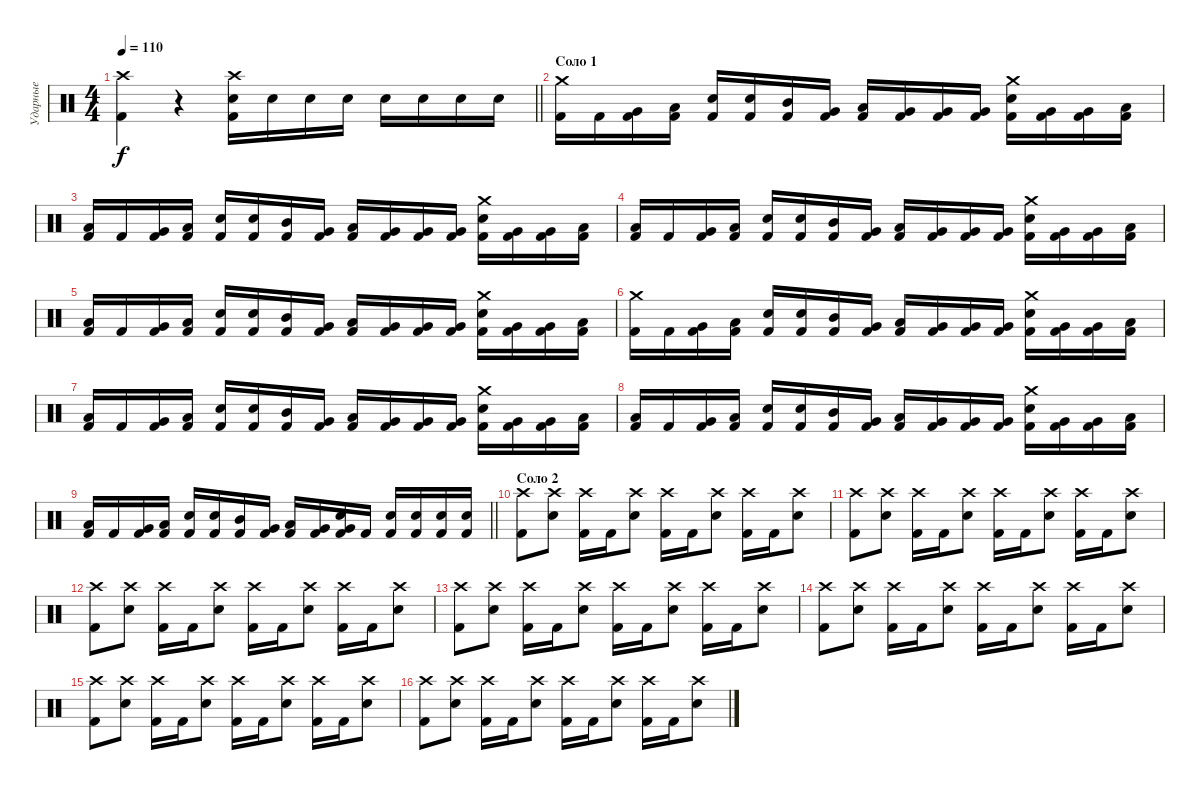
\track ("Ударные" "Ударные") {instrument percussion}
\staff {score}
\articulation defaults
\ts (4 4)
\tempo 110
\clef neutral
\barLineRight lightlight
\ks c
("Crash high (hit)" "Kick (hit) 2").4{dy f} r.4 ("Crash high (hit)" "Snare (hit) 2" "Kick (hit) 2").16 "Snare (hit) 2".16 "Snare (hit) 2".16 "Snare (hit) 2".16 "Snare (hit) 2".16 "Snare (hit) 2".16 "Snare (hit) 2".16 "Snare (hit) 2".16 |
\section ("" "Соло 1")
("Crash medium (hit)" "Kick (hit) 2").16 "Kick (hit) 2".16 ("Very Low Tom (hit)" "Kick (hit) 2").16 ("Low Floor Tom (hit)" "Kick (hit) 2").16 ("Snare (hit) 2" "Kick (hit) 2").16 ("Snare (hit) 2" "Kick (hit) 2").16 ("Mid Tom (hit)" "Kick (hit) 2").16 ("Very Low Tom (hit)" "Kick (hit) 2").16 ("Low Tom (hit)" "Kick (hit) 2").16 ("Very Low Tom (hit)" "Kick (hit) 2").16 ("Very Low Tom (hit)" "Kick (hit) 2").16 ("Very Low Tom (hit)" "Kick (hit) 2").16 ("Crash medium (hit)" "Snare (hit) 2" "Kick (hit) 2").16 ("Very Low Tom (hit)" "Kick (hit) 2").16 ("Very Low Tom (hit)" "Kick (hit) 2").16 ("Low Floor Tom (hit)" "Kick (hit) 2").16 |
("Low Tom (hit)" "Kick (hit) 2").16 "Kick (hit) 2".16 ("Very Low Tom (hit)" "Kick (hit) 2").16 ("Low Floor Tom (hit)" "Kick (hit) 2").16 ("Snare (hit) 2" "Kick (hit) 2").16 ("Snare (hit) 2" "Kick (hit) 2").16 ("Mid Tom (hit)" "Kick (hit) 2").16 ("Very Low Tom (hit)" "Kick (hit) 2").16 ("Low Tom (hit)" "Kick (hit) 2").16 ("Very Low Tom (hit)" "Kick (hit) 2").16 ("Very Low Tom (hit)" "Kick (hit) 2").16 ("Very Low Tom (hit)" "Kick (hit) 2").16 ("Crash medium (hit)" "Snare (hit) 2" "Kick (hit) 2").16 ("Very Low Tom (hit)" "Kick (hit) 2").16 ("Very Low Tom (hit)" "Kick (hit) 2").16 ("Low Floor Tom (hit)" "Kick (hit) 2").16 |
("Low Tom (hit)" "Kick (hit) 2").16 "Kick (hit) 2".16 ("Very Low Tom (hit)" "Kick (hit) 2").16 ("Low Floor Tom (hit)" "Kick (hit) 2").16 ("Snare (hit) 2" "Kick (hit) 2").16 ("Snare (hit) 2" "Kick (hit) 2").16 ("Mid Tom (hit)" "Kick (hit) 2").16 ("Very Low Tom (hit)" "Kick (hit) 2").16 ("Low Tom (hit)" "Kick (hit) 2").16 ("Very Low Tom (hit)" "Kick (hit) 2").16 ("Very Low Tom (hit)" "Kick (hit) 2").16 ("Very Low Tom (hit)" "Kick (hit) 2").16 ("Crash medium (hit)" "Snare (hit) 2" "Kick (hit) 2").16 ("Very Low Tom (hit)" "Kick (hit) 2").16 ("Very Low Tom (hit)" "Kick (hit) 2").16 ("Low Floor Tom (hit)" "Kick (hit) 2").16 |
("Low Tom (hit)" "Kick (hit) 2").16 "Kick (hit) 2".16 ("Very Low Tom (hit)" "Kick (hit) 2").16 ("Low Floor Tom (hit)" "Kick (hit) 2").16 ("Snare (hit) 2" "Kick (hit) 2").16 ("Snare (hit) 2" "Kick (hit) 2").16 ("Mid Tom (hit)" "Kick (hit) 2").16 ("Very Low Tom (hit)" "Kick (hit) 2").16 ("Low Tom (hit)" "Kick (hit) 2").16 ("Very Low Tom (hit)" "Kick (hit) 2").16 ("Very Low Tom (hit)" "Kick (hit) 2").16 ("Very Low Tom (hit)" "Kick (hit) 2").16 ("Crash medium (hit)" "Snare (hit) 2" "Kick (hit) 2").16 ("Very Low Tom (hit)" "Kick (hit) 2").16 ("Very Low Tom (hit)" "Kick (hit) 2").16 ("Low Floor Tom (hit)" "Kick (hit) 2").16 |
("Crash medium (hit)" "Kick (hit) 2").16 "Kick (hit) 2".16 ("Very Low Tom (hit)" "Kick (hit) 2").16 ("Low Floor Tom (hit)" "Kick (hit) 2").16 ("Snare (hit) 2" "Kick (hit) 2").16 ("Snare (hit) 2" "Kick (hit) 2").16 ("Mid Tom (hit)" "Kick (hit) 2").16 ("Very Low Tom (hit)" "Kick (hit) 2").16 ("Low Tom (hit)" "Kick (hit) 2").16 ("Very Low Tom (hit)" "Kick (hit) 2").16 ("Very Low Tom (hit)" "Kick (hit) 2").16 ("Very Low Tom (hit)" "Kick (hit) 2").16 ("Crash medium (hit)" "Snare (hit) 2" "Kick (hit) 2").16 ("Very Low Tom (hit)" "Kick (hit) 2").16 ("Very Low Tom (hit)" "Kick (hit) 2").16 ("Low Floor Tom (hit)" "Kick (hit) 2").16 |
("Low Tom (hit)" "Kick (hit) 2").16 "Kick (hit) 2".16 ("Very Low Tom (hit)" "Kick (hit) 2").16 ("Low Floor Tom (hit)" "Kick (hit) 2").16 ("Snare (hit) 2" "Kick (hit) 2").16 ("Snare (hit) 2" "Kick (hit) 2").16 ("Mid Tom (hit)" "Kick (hit) 2").16 ("Very Low Tom (hit)" "Kick (hit) 2").16 ("Low Tom (hit)" "Kick (hit) 2").16 ("Very Low Tom (hit)" "Kick (hit) 2").16 ("Very Low Tom (hit)" "Kick (hit) 2").16 ("Very Low Tom (hit)" "Kick (hit) 2").16 ("Crash medium (hit)" "Snare (hit) 2" "Kick (hit) 2").16 ("Very Low Tom (hit)" "Kick (hit) 2").16 ("Very Low Tom (hit)" "Kick (hit) 2").16 ("Low Floor Tom (hit)" "Kick (hit) 2").16 |
("Low Tom (hit)" "Kick (hit) 2").16 "Kick (hit) 2".16 ("Very Low Tom (hit)" "Kick (hit) 2").16 ("Low Floor Tom (hit)" "Kick (hit) 2").16 ("Snare (hit) 2" "Kick (hit) 2").16 ("Snare (hit) 2" "Kick (hit) 2").16 ("Mid Tom (hit)" "Kick (hit) 2").16 ("Very Low Tom (hit)" "Kick (hit) 2").16 ("Low Tom (hit)" "Kick (hit) 2").16 ("Very Low Tom (hit)" "Kick (hit) 2").16 ("Very Low Tom (hit)" "Kick (hit) 2").16 ("Very Low Tom (hit)" "Kick (hit) 2").16 ("Crash medium (hit)" "Snare (hit) 2" "Kick (hit) 2").16 ("Very Low Tom (hit)" "Kick (hit) 2").16 ("Very Low Tom (hit)" "Kick (hit) 2").16 ("Low Floor Tom (hit)" "Kick (hit) 2").16 |
\barLineRight lightlight
("Low Tom (hit)" "Kick (hit) 2").16 "Kick (hit) 2".16 ("Very Low Tom (hit)" "Kick (hit) 2").16 ("Low Floor Tom (hit)" "Kick (hit) 2").16 ("Snare (hit) 2" "Kick (hit) 2").16 ("Snare (hit) 2" "Kick (hit) 2").16 ("Mid Tom (hit)" "Kick (hit) 2").16 ("Very Low Tom (hit)" "Kick (hit) 2").16 ("Low Tom (hit)" "Kick (hit) 2").16 ("Very Low Tom (hit)" "Kick (hit) 2").16 ("Very Low Tom (hit)" "Snare (hit) 2" "Kick (hit) 2").16 "Kick (hit) 2".16 ("Snare (hit) 2" "Kick (hit) 2").16 ("Snare (hit) 2" "Kick (hit) 2").16 ("Snare (hit) 2" "Kick (hit) 2").16 ("Snare (hit) 2" "Kick (hit) 2").16 |
\section ("" "Соло 2")
("Crash high (hit)" "Kick (hit) 2").8 ("Crash high (hit)" "Snare (hit) 2").8 ("Crash high (hit)" "Kick (hit) 2").16 "Kick (hit) 2".16 ("Crash high (hit)" "Snare (hit) 2").8 ("Crash high (hit)" "Kick (hit) 2").16 "Kick (hit) 2".16 ("Crash high (hit)" "Snare (hit) 2").8 ("Crash high (hit)" "Kick (hit) 2").16 "Kick (hit) 2".16 ("Crash high (hit)" "Snare (hit) 2").8 |
("Crash high (hit)" "Kick (hit) 2").8 ("Crash high (hit)" "Snare (hit) 2").8 ("Crash high (hit)" "Kick (hit) 2").16 "Kick (hit) 2".16 ("Crash high (hit)" "Snare (hit) 2").8 ("Crash high (hit)" "Kick (hit) 2").16 "Kick (hit) 2".16 ("Crash high (hit)" "Snare (hit) 2").8 ("Crash high (hit)" "Kick (hit) 2").16 "Kick (hit) 2".16 ("Crash high (hit)" "Snare (hit) 2").8 |
("Crash high (hit)" "Kick (hit) 2").8 ("Crash high (hit)" "Snare (hit) 2").8 ("Crash high (hit)" "Kick (hit) 2").16 "Kick (hit) 2".16 ("Crash high (hit)" "Snare (hit) 2").8 ("Crash high (hit)" "Kick (hit) 2").16 "Kick (hit) 2".16 ("Crash high (hit)" "Snare (hit) 2").8 ("Crash high (hit)" "Kick (hit) 2").16 "Kick (hit) 2".16 ("Crash high (hit)" "Snare (hit) 2").8 |
("Crash high (hit)" "Kick (hit) 2").8 ("Crash high (hit)" "Snare (hit) 2").8 ("Crash high (hit)" "Kick (hit) 2").16 "Kick (hit) 2".16 ("Crash high (hit)" "Snare (hit) 2").8 ("Crash high (hit)" "Kick (hit) 2").16 "Kick (hit) 2".16 ("Crash high (hit)" "Snare (hit) 2").8 ("Crash high (hit)" "Kick (hit) 2").16 "Kick (hit) 2".16 ("Crash high (hit)" "Snare (hit) 2").8 |
("Crash high (hit)" "Kick (hit) 2").8 ("Crash high (hit)" "Snare (hit) 2").8 ("Crash high (hit)" "Kick (hit) 2").16 "Kick (hit) 2".16 ("Crash high (hit)" "Snare (hit) 2").8 ("Crash high (hit)" "Kick (hit) 2").16 "Kick (hit) 2".16 ("Crash high (hit)" "Snare (hit) 2").8 ("Crash high (hit)" "Kick (hit) 2").16 "Kick (hit) 2".16 ("Crash high (hit)" "Snare (hit) 2").8 |
("Crash high (hit)" "Kick (hit) 2").8 ("Crash high (hit)" "Snare (hit) 2").8 ("Crash high (hit)" "Kick (hit) 2").16 "Kick (hit) 2".16 ("Crash high (hit)" "Snare (hit) 2").8 ("Crash high (hit)" "Kick (hit) 2").16 "Kick (hit) 2".16 ("Crash high (hit)" "Snare (hit) 2").8 ("Crash high (hit)" "Kick (hit) 2").16 "Kick (hit) 2".16 ("Crash high (hit)" "Snare (hit) 2").8 |
("Crash high (hit)" "Kick (hit) 2").8 ("Crash high (hit)" "Snare (hit) 2").8 ("Crash high (hit)" "Kick (hit) 2").16 "Kick (hit) 2".16 ("Crash high (hit)" "Snare (hit) 2").8 ("Crash high (hit)" "Kick (hit) 2").16 "Kick (hit) 2".16 ("Crash high (hit)" "Snare (hit) 2").8 ("Crash high (hit)" "Kick (hit) 2").16 "Kick (hit) 2".16 ("Crash high (hit)" "Snare (hit) 2").8
